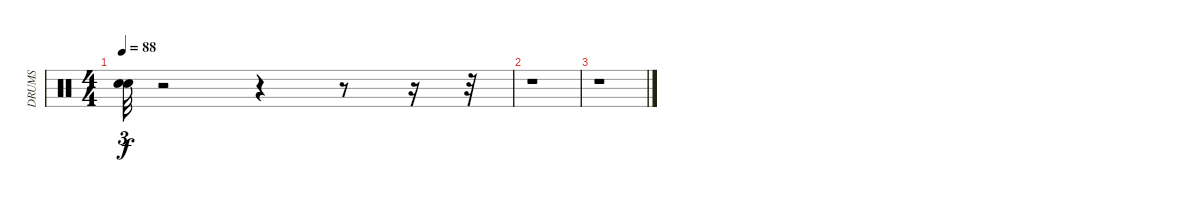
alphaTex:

\track ("DRUMS" "DRUMS") {instrument percussion}
\staff {score}
\articulation defaults
\ts (4 4)
\tempo 88
\clef neutral
\ks c
("Snare (hit)"{t} "Snare (hit)"{t}).32{tu (3 2) dy f} r.2 r.4 r.8 r.16 r.32 |
r.1 |
r.1
